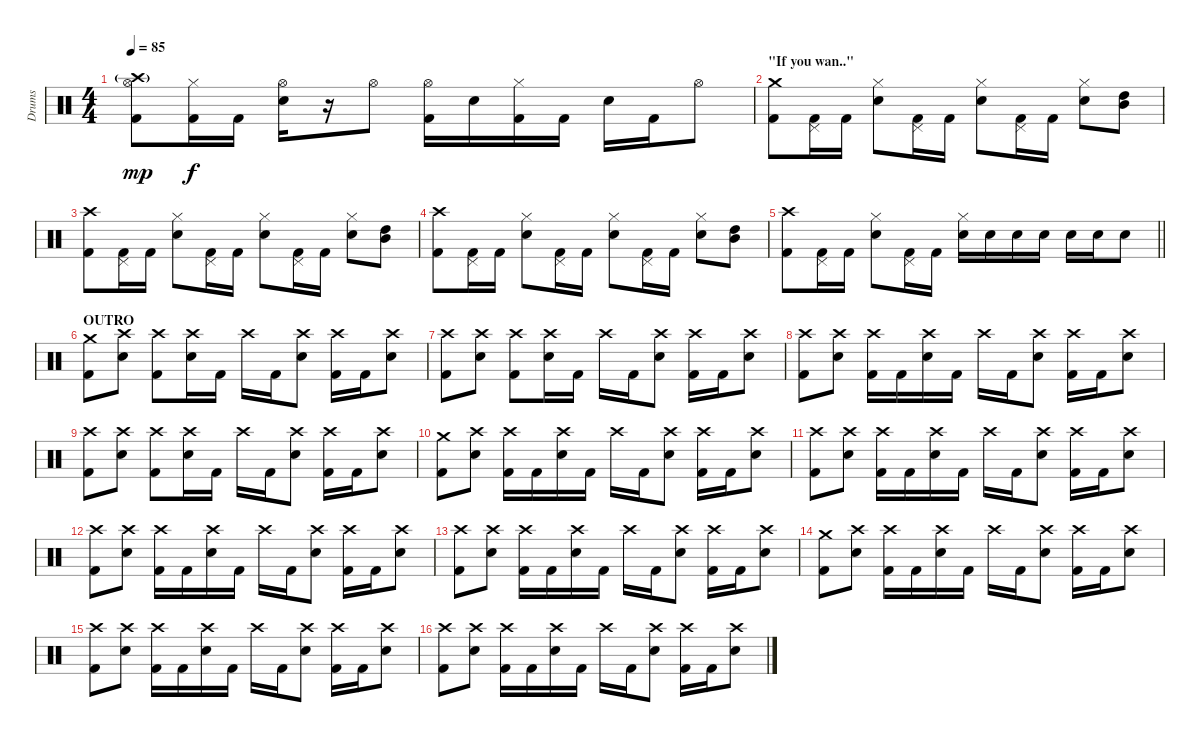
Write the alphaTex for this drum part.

\track ("Drums" "Drums") {instrument percussion}
\staff {score}
\articulation defaults
\ts (4 4)
\tempo 85
\clef neutral
\ks c
("Crash high (hit)"{g} "Hi-Hat (open)" "Kick (hit) 2").8{dy mp} ("Hi-Hat (closed)" "Kick (hit) 2").16{dy f} "Kick (hit) 2".16 ("Hi-Hat (open)" "Electric Snare (hit)").16 r.16 "Hi-Hat (open)".8 ("Hi-Hat (open)" "Kick (hit) 2").16 "Electric Snare (hit)".16 ("Hi-Hat (closed)" "Kick (hit) 2").16 "Kick (hit) 2".16 "Electric Snare (hit)".16 "Kick (hit) 2".16 "Hi-Hat (open)".8 |
\section ("" "\"If you wan..\"")
("Crash medium (hit)" "Kick (hit) 2").8 ("Pedal Hi-Hat (hit)" "Kick (hit) 2").16 "Kick (hit) 2".16 ("Hi-Hat (closed)" "Electric Snare (hit)").8 ("Pedal Hi-Hat (hit)" "Kick (hit) 2").16 "Kick (hit) 2".16 ("Hi-Hat (closed)" "Electric Snare (hit)").8 ("Pedal Hi-Hat (hit)" "Kick (hit) 2").16 "Kick (hit) 2".16 ("Hi-Hat (closed)" "Electric Snare (hit)").8 ("High Tom (hit)" "Mid Tom (hit)").8 |
("Crash high (hit)" "Kick (hit) 2").8 ("Pedal Hi-Hat (hit)" "Kick (hit) 2").16 "Kick (hit) 2".16 ("Hi-Hat (closed)" "Electric Snare (hit)").8 ("Pedal Hi-Hat (hit)" "Kick (hit) 2").16 "Kick (hit) 2".16 ("Hi-Hat (closed)" "Electric Snare (hit)").8 ("Pedal Hi-Hat (hit)" "Kick (hit) 2").16 "Kick (hit) 2".16 ("Hi-Hat (closed)" "Electric Snare (hit)").8 ("High Tom (hit)" "Mid Tom (hit)").8 |
("Crash high (hit)" "Kick (hit) 2").8 ("Pedal Hi-Hat (hit)" "Kick (hit) 2").16 "Kick (hit) 2".16 ("Hi-Hat (closed)" "Electric Snare (hit)").8 ("Pedal Hi-Hat (hit)" "Kick (hit) 2").16 "Kick (hit) 2".16 ("Hi-Hat (closed)" "Electric Snare (hit)").8 ("Pedal Hi-Hat (hit)" "Kick (hit) 2").16 "Kick (hit) 2".16 ("Hi-Hat (closed)" "Electric Snare (hit)").8 ("High Tom (hit)" "Mid Tom (hit)").8 |
\barLineRight lightlight
("Crash high (hit)" "Kick (hit) 2").8 ("Pedal Hi-Hat (hit)" "Kick (hit) 2").16 "Kick (hit) 2".16 ("Hi-Hat (closed)" "Electric Snare (hit)").8 ("Pedal Hi-Hat (hit)" "Kick (hit) 2").16 "Kick (hit) 2".16 ("Hi-Hat (closed)" "Electric Snare (hit)").16 "Electric Snare (hit)".16 "Electric Snare (hit)".16 "Electric Snare (hit)".16 "Electric Snare (hit)".16 "Electric Snare (hit)".16 "Electric Snare (hit)".8 |
\section ("" "OUTRO")
("Crash medium (hit)" "Kick (hit) 2").8 ("Crash high (hit)" "Electric Snare (hit)").8 ("Crash high (hit)" "Kick (hit) 2").8 ("Crash high (hit)" "Electric Snare (hit)").16 "Kick (hit) 2".16 "Crash high (hit)".16 "Kick (hit) 2".16 ("Crash high (hit)" "Electric Snare (hit)").8 ("Crash high (hit)" "Kick (hit) 2").16 "Kick (hit) 2".16 ("Crash high (hit)" "Electric Snare (hit)").8 |
("Crash high (hit)" "Kick (hit) 2").8 ("Crash high (hit)" "Electric Snare (hit)").8 ("Crash high (hit)" "Kick (hit) 2").8 ("Crash high (hit)" "Electric Snare (hit)").16 "Kick (hit) 2".16 "Crash high (hit)".16 "Kick (hit) 2".16 ("Crash high (hit)" "Electric Snare (hit)").8 ("Crash high (hit)" "Kick (hit) 2").16 "Kick (hit) 2".16 ("Crash high (hit)" "Electric Snare (hit)").8 |
("Crash high (hit)" "Kick (hit) 2").8 ("Crash high (hit)" "Electric Snare (hit)").8 ("Crash high (hit)" "Kick (hit) 2").16 "Kick (hit) 2".16 ("Crash high (hit)" "Electric Snare (hit)").16 "Kick (hit) 2".16 "Crash high (hit)".16 "Kick (hit) 2".16 ("Crash high (hit)" "Electric Snare (hit)").8 ("Crash high (hit)" "Kick (hit) 2").16 "Kick (hit) 2".16 ("Crash high (hit)" "Electric Snare (hit)").8 |
("Crash high (hit)" "Kick (hit) 2").8 ("Crash high (hit)" "Electric Snare (hit)").8 ("Crash high (hit)" "Kick (hit) 2").8 ("Crash high (hit)" "Electric Snare (hit)").16 "Kick (hit) 2".16 "Crash high (hit)".16 "Kick (hit) 2".16 ("Crash high (hit)" "Electric Snare (hit)").8 ("Crash high (hit)" "Kick (hit) 2").16 "Kick (hit) 2".16 ("Crash high (hit)" "Electric Snare (hit)").8 |
("Crash medium (hit)" "Kick (hit) 2").8 ("Crash high (hit)" "Electric Snare (hit)").8 ("Crash high (hit)" "Kick (hit) 2").16 "Kick (hit) 2".16 ("Crash high (hit)" "Electric Snare (hit)").16 "Kick (hit) 2".16 "Crash high (hit)".16 "Kick (hit) 2".16 ("Crash high (hit)" "Electric Snare (hit)").8 ("Crash high (hit)" "Kick (hit) 2").16 "Kick (hit) 2".16 ("Crash high (hit)" "Electric Snare (hit)").8 |
("Crash high (hit)" "Kick (hit) 2").8 ("Crash high (hit)" "Electric Snare (hit)").8 ("Crash high (hit)" "Kick (hit) 2").16 "Kick (hit) 2".16 ("Crash high (hit)" "Electric Snare (hit)").16 "Kick (hit) 2".16 "Crash high (hit)".16 "Kick (hit) 2".16 ("Crash high (hit)" "Electric Snare (hit)").8 ("Crash high (hit)" "Kick (hit) 2").16 "Kick (hit) 2".16 ("Crash high (hit)" "Electric Snare (hit)").8 |
("Crash high (hit)" "Kick (hit) 2").8 ("Crash high (hit)" "Electric Snare (hit)").8 ("Crash high (hit)" "Kick (hit) 2").16 "Kick (hit) 2".16 ("Crash high (hit)" "Electric Snare (hit)").16 "Kick (hit) 2".16 "Crash high (hit)".16 "Kick (hit) 2".16 ("Crash high (hit)" "Electric Snare (hit)").8 ("Crash high (hit)" "Kick (hit) 2").16 "Kick (hit) 2".16 ("Crash high (hit)" "Electric Snare (hit)").8 |
("Crash high (hit)" "Kick (hit) 2").8 ("Crash high (hit)" "Electric Snare (hit)").8 ("Crash high (hit)" "Kick (hit) 2").16 "Kick (hit) 2".16 ("Crash high (hit)" "Electric Snare (hit)").16 "Kick (hit) 2".16 "Crash high (hit)".16 "Kick (hit) 2".16 ("Crash high (hit)" "Electric Snare (hit)").8 ("Crash high (hit)" "Kick (hit) 2").16 "Kick (hit) 2".16 ("Crash high (hit)" "Electric Snare (hit)").8 |
("Crash medium (hit)" "Kick (hit) 2").8 ("Crash high (hit)" "Electric Snare (hit)").8 ("Crash high (hit)" "Kick (hit) 2").16 "Kick (hit) 2".16 ("Crash high (hit)" "Electric Snare (hit)").16 "Kick (hit) 2".16 "Crash high (hit)".16 "Kick (hit) 2".16 ("Crash high (hit)" "Electric Snare (hit)").8 ("Crash high (hit)" "Kick (hit) 2").16 "Kick (hit) 2".16 ("Crash high (hit)" "Electric Snare (hit)").8 |
("Crash high (hit)" "Kick (hit) 2").8 ("Crash high (hit)" "Electric Snare (hit)").8 ("Crash high (hit)" "Kick (hit) 2").16 "Kick (hit) 2".16 ("Crash high (hit)" "Electric Snare (hit)").16 "Kick (hit) 2".16 "Crash high (hit)".16 "Kick (hit) 2".16 ("Crash high (hit)" "Electric Snare (hit)").8 ("Crash high (hit)" "Kick (hit) 2").16 "Kick (hit) 2".16 ("Crash high (hit)" "Electric Snare (hit)").8 |
("Crash high (hit)" "Kick (hit) 2").8 ("Crash high (hit)" "Electric Snare (hit)").8 ("Crash high (hit)" "Kick (hit) 2").16 "Kick (hit) 2".16 ("Crash high (hit)" "Electric Snare (hit)").16 "Kick (hit) 2".16 "Crash high (hit)".16 "Kick (hit) 2".16 ("Crash high (hit)" "Electric Snare (hit)").8 ("Crash high (hit)" "Kick (hit) 2").16 "Kick (hit) 2".16 ("Crash high (hit)" "Electric Snare (hit)").8
